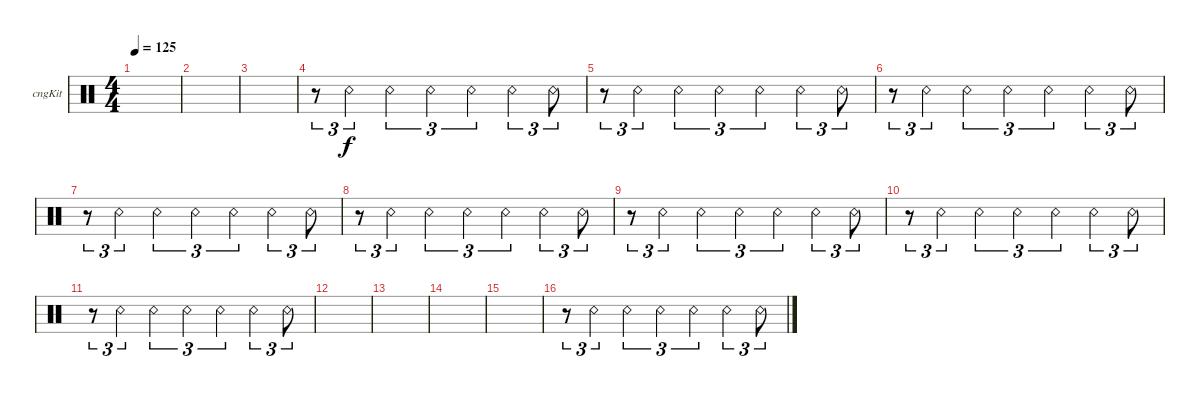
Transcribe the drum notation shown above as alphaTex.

\defaultSystemsLayout 4
\bracketExtendMode groupsimilarinstruments
\firstSystemTrackNameOrientation horizontal
\otherSystemsTrackNameOrientation horizontal
\track ("Congas" "cngKit") {instrument percussion}
\staff {score}
\articulation defaults
\ts (4 4)
\tempo 125
\clef neutral
\scale
0.333333
\ks c
|
\scale
0.333333 |
\scale
0.333333 |
\scale
0.333333 r.8{tu (3 2)} "Snare (rim shot)".4{tu (3 2)} "Snare (rim shot)".4{tu (3 2)} "Snare (rim shot)".4{tu (3 2)} "Snare (rim shot)".4{tu (3 2)} "Snare (rim shot)".4{tu (3 2)} "Snare (rim shot)".8{tu (3 2)} |
\scale
0.333333 r.8{tu (3 2)} "Snare (rim shot)".4{tu (3 2)} "Snare (rim shot)".4{tu (3 2)} "Snare (rim shot)".4{tu (3 2)} "Snare (rim shot)".4{tu (3 2)} "Snare (rim shot)".4{tu (3 2)} "Snare (rim shot)".8{tu (3 2)} |
\scale
0.333333 r.8{tu (3 2)} "Snare (rim shot)".4{tu (3 2)} "Snare (rim shot)".4{tu (3 2)} "Snare (rim shot)".4{tu (3 2)} "Snare (rim shot)".4{tu (3 2)} "Snare (rim shot)".4{tu (3 2)} "Snare (rim shot)".8{tu (3 2)} |
\scale
0.333333 r.8{tu (3 2)} "Snare (rim shot)".4{tu (3 2)} "Snare (rim shot)".4{tu (3 2)} "Snare (rim shot)".4{tu (3 2)} "Snare (rim shot)".4{tu (3 2)} "Snare (rim shot)".4{tu (3 2)} "Snare (rim shot)".8{tu (3 2)} |
\scale
0.333333 r.8{tu (3 2)} "Snare (rim shot)".4{tu (3 2)} "Snare (rim shot)".4{tu (3 2)} "Snare (rim shot)".4{tu (3 2)} "Snare (rim shot)".4{tu (3 2)} "Snare (rim shot)".4{tu (3 2)} "Snare (rim shot)".8{tu (3 2)} |
\scale
0.333333 r.8{tu (3 2)} "Snare (rim shot)".4{tu (3 2)} "Snare (rim shot)".4{tu (3 2)} "Snare (rim shot)".4{tu (3 2)} "Snare (rim shot)".4{tu (3 2)} "Snare (rim shot)".4{tu (3 2)} "Snare (rim shot)".8{tu (3 2)} |
\scale
0.333333 r.8{tu (3 2)} "Snare (rim shot)".4{tu (3 2)} "Snare (rim shot)".4{tu (3 2)} "Snare (rim shot)".4{tu (3 2)} "Snare (rim shot)".4{tu (3 2)} "Snare (rim shot)".4{tu (3 2)} "Snare (rim shot)".8{tu (3 2)} |
\scale
0.333333 r.8{tu (3 2)} "Snare (rim shot)".4{tu (3 2)} "Snare (rim shot)".4{tu (3 2)} "Snare (rim shot)".4{tu (3 2)} "Snare (rim shot)".4{tu (3 2)} "Snare (rim shot)".4{tu (3 2)} "Snare (rim shot)".8{tu (3 2)} |
\scale
0.333333 |
\scale
0.333333 |
\scale
0.333333 |
\scale
0.333333 |
\scale
0.333333 r.8{tu (3 2)} "Snare (rim shot)".4{tu (3 2)} "Snare (rim shot)".4{tu (3 2)} "Snare (rim shot)".4{tu (3 2)} "Snare (rim shot)".4{tu (3 2)} "Snare (rim shot)".4{tu (3 2)} "Snare (rim shot)".8{tu (3 2)}
